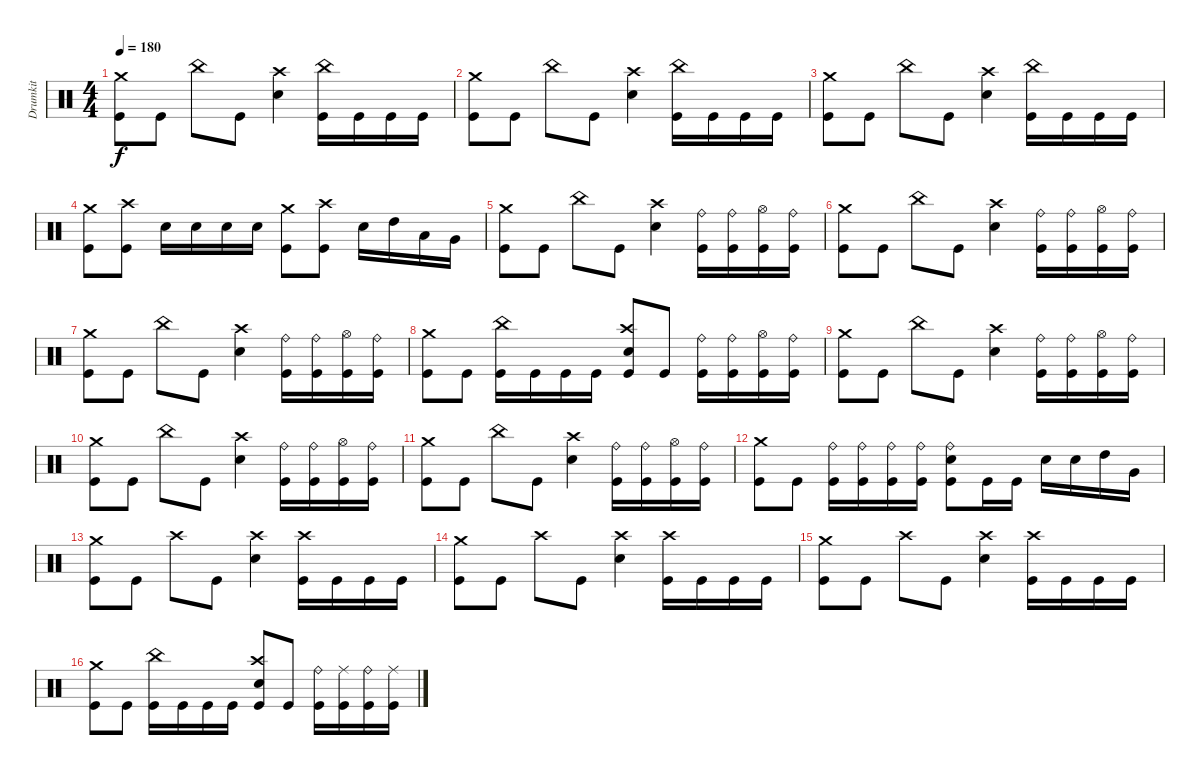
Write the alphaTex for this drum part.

\track ("Drumkit" "Drumkit") {instrument percussion}
\staff {score}
\articulation defaults
\ts (4 4)
\tempo 180
\clef neutral
\ks c
("Crash medium (hit)" "Kick (hit)").8{dy f} "Kick (hit)".8 "China (hit)".8 "Kick (hit)".8 ("Crash high (hit)" "Snare (hit) 2").4 ("China (hit)" "Kick (hit)").16 "Kick (hit)".16 "Kick (hit)".16 "Kick (hit)".16 |
("Crash medium (hit)" "Kick (hit)").8 "Kick (hit)".8 "China (hit)".8 "Kick (hit)".8 ("Crash high (hit)" "Snare (hit) 2").4 ("China (hit)" "Kick (hit)").16 "Kick (hit)".16 "Kick (hit)".16 "Kick (hit)".16 |
("Crash medium (hit)" "Kick (hit)").8 "Kick (hit)".8 "China (hit)".8 "Kick (hit)".8 ("Crash high (hit)" "Snare (hit) 2").4 ("China (hit)" "Kick (hit)").16 "Kick (hit)".16 "Kick (hit)".16 "Kick (hit)".16 |
("Crash medium (hit)" "Kick (hit)").8 ("Crash high (hit)" "Kick (hit)").8 "Snare (hit) 2".16 "Snare (hit) 2".16 "Snare (hit) 2".16 "Snare (hit) 2".16 ("Crash medium (hit)" "Kick (hit)").8 ("Crash high (hit)" "Kick (hit)").8 "Snare (hit) 2".16 "High Tom (hit)".16 "Low Tom (hit)".16 "Very Low Tom (hit)".16 |
("Crash medium (hit)" "Kick (hit)").8 "Kick (hit)".8 "China (hit)".8 "Kick (hit)".8 ("Crash high (hit)" "Snare (hit) 2").4 ("Ride (bell)" "Kick (hit)").16 ("Ride (bell)" "Kick (hit)").16 ("Hi-Hat (open)" "Kick (hit)").16 ("Ride (bell)" "Kick (hit)").16 |
("Crash medium (hit)" "Kick (hit)").8 "Kick (hit)".8 "China (hit)".8 "Kick (hit)".8 ("Crash high (hit)" "Snare (hit) 2").4 ("Ride (bell)" "Kick (hit)").16 ("Ride (bell)" "Kick (hit)").16 ("Hi-Hat (open)" "Kick (hit)").16 ("Ride (bell)" "Kick (hit)").16 |
("Crash medium (hit)" "Kick (hit)").8 "Kick (hit)".8 "China (hit)".8 "Kick (hit)".8 ("Crash high (hit)" "Snare (hit) 2").4 ("Ride (bell)" "Kick (hit)").16 ("Ride (bell)" "Kick (hit)").16 ("Hi-Hat (open)" "Kick (hit)").16 ("Ride (bell)" "Kick (hit)").16 |
("Crash medium (hit)" "Kick (hit)").8 "Kick (hit)".8 ("China (hit)" "Kick (hit)").16 "Kick (hit)".16 "Kick (hit)".16 "Kick (hit)".16 ("Crash high (hit)" "Snare (hit) 2" "Kick (hit)").8 "Kick (hit)".8 ("Ride (bell)" "Kick (hit)").16 ("Ride (bell)" "Kick (hit)").16 ("Hi-Hat (open)" "Kick (hit)").16 ("Ride (bell)" "Kick (hit)").16 |
("Crash medium (hit)" "Kick (hit)").8 "Kick (hit)".8 "China (hit)".8 "Kick (hit)".8 ("Crash high (hit)" "Snare (hit) 2").4 ("Ride (bell)" "Kick (hit)").16 ("Ride (bell)" "Kick (hit)").16 ("Hi-Hat (open)" "Kick (hit)").16 ("Ride (bell)" "Kick (hit)").16 |
("Crash medium (hit)" "Kick (hit)").8 "Kick (hit)".8 "China (hit)".8 "Kick (hit)".8 ("Crash high (hit)" "Snare (hit) 2").4 ("Ride (bell)" "Kick (hit)").16 ("Ride (bell)" "Kick (hit)").16 ("Hi-Hat (open)" "Kick (hit)").16 ("Ride (bell)" "Kick (hit)").16 |
("Crash medium (hit)" "Kick (hit)").8 "Kick (hit)".8 "China (hit)".8 "Kick (hit)".8 ("Crash high (hit)" "Snare (hit) 2").4 ("Ride (bell)" "Kick (hit)").16 ("Ride (bell)" "Kick (hit)").16 ("Hi-Hat (open)" "Kick (hit)").16 ("Ride (bell)" "Kick (hit)").16 |
("Crash medium (hit)" "Kick (hit)").8 "Kick (hit)".8 ("Ride (bell)" "Kick (hit)").16 ("Ride (bell)" "Kick (hit)").16 ("Ride (bell)" "Kick (hit)").16 ("Ride (bell)" "Kick (hit)").16 ("Ride (bell)" "Snare (hit) 2" "Kick (hit)").8 "Kick (hit)".16 "Kick (hit)".16 "Snare (hit) 2".16 "Snare (hit) 2".16 "High Tom (hit)".16 "Very Low Tom (hit)".16 |
("Crash medium (hit)" "Kick (hit)").8 "Kick (hit)".8 "Crash high (hit)".8 "Kick (hit)".8 ("Crash high (hit)" "Snare (hit) 2").4 ("Crash high (hit)" "Kick (hit)").16 "Kick (hit)".16 "Kick (hit)".16 "Kick (hit)".16 |
("Crash medium (hit)" "Kick (hit)").8 "Kick (hit)".8 "Crash high (hit)".8 "Kick (hit)".8 ("Crash high (hit)" "Snare (hit) 2").4 ("Crash high (hit)" "Kick (hit)").16 "Kick (hit)".16 "Kick (hit)".16 "Kick (hit)".16 |
("Crash medium (hit)" "Kick (hit)").8 "Kick (hit)".8 "Crash high (hit)".8 "Kick (hit)".8 ("Crash high (hit)" "Snare (hit) 2").4 ("Crash high (hit)" "Kick (hit)").16 "Kick (hit)".16 "Kick (hit)".16 "Kick (hit)".16 |
("Crash medium (hit)" "Kick (hit)").8 "Kick (hit)".8 ("China (hit)" "Kick (hit)").16 "Kick (hit)".16 "Kick (hit)".16 "Kick (hit)".16 ("Crash high (hit)" "Snare (hit) 2" "Kick (hit)").8 "Kick (hit)".8 ("Ride (bell)" "Kick (hit)").16 ("Ride (middle)" "Kick (hit)").16 ("Ride (bell)" "Kick (hit)").16 ("Ride (middle)" "Kick (hit)").16
